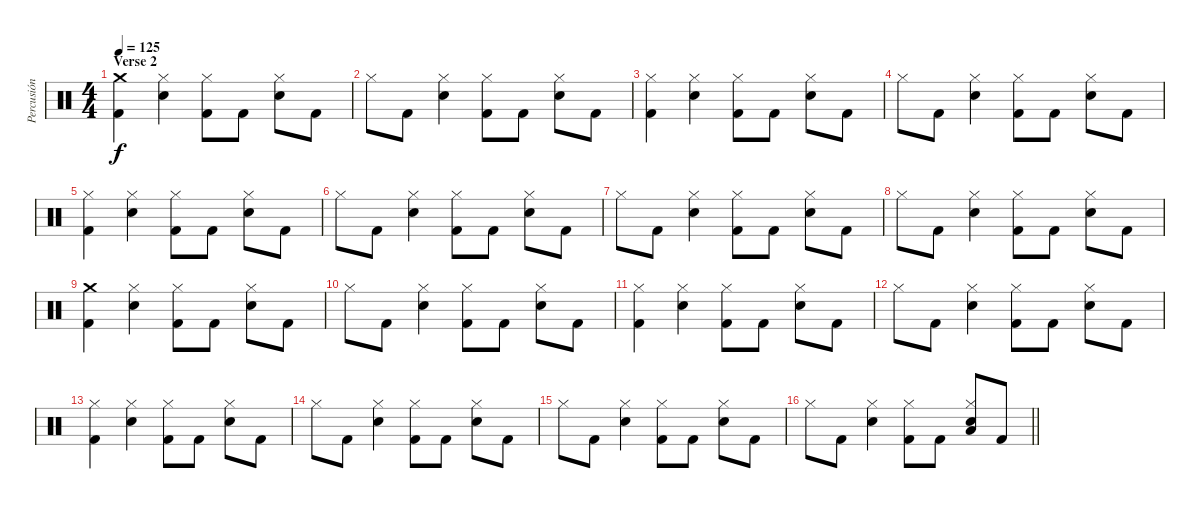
\track ("Percusión" "Percusión") {instrument percussion}
\staff {score}
\articulation defaults
\ts (4 4)
\section ("" "Verse 2")
\tempo 125
\clef neutral
\ks c
("Crash medium (hit)" "Kick (hit) 2").4{dy f} ("Snare (hit) 2" "Hi-Hat (closed)").4 ("Kick (hit) 2" "Hi-Hat (closed)").8 "Kick (hit) 2".8 ("Hi-Hat (closed)" "Snare (hit) 2").8 "Kick (hit) 2".8 |
"Hi-Hat (closed)".8 "Kick (hit) 2".8 ("Hi-Hat (closed)" "Snare (hit) 2").4 ("Hi-Hat (closed)" "Kick (hit) 2").8 "Kick (hit) 2".8 ("Hi-Hat (closed)" "Snare (hit) 2").8 "Kick (hit) 2".8 |
("Hi-Hat (closed)" "Kick (hit) 2").4 ("Snare (hit) 2" "Hi-Hat (closed)").4 ("Kick (hit) 2" "Hi-Hat (closed)").8 "Kick (hit) 2".8 ("Hi-Hat (closed)" "Snare (hit) 2").8 "Kick (hit) 2".8 |
"Hi-Hat (closed)".8 "Kick (hit) 2".8 ("Hi-Hat (closed)" "Snare (hit) 2").4 ("Hi-Hat (closed)" "Kick (hit) 2").8 "Kick (hit) 2".8 ("Hi-Hat (closed)" "Snare (hit) 2").8 "Kick (hit) 2".8 |
("Hi-Hat (closed)" "Kick (hit) 2").4 ("Snare (hit) 2" "Hi-Hat (closed)").4 ("Kick (hit) 2" "Hi-Hat (closed)").8 "Kick (hit) 2".8 ("Hi-Hat (closed)" "Snare (hit) 2").8 "Kick (hit) 2".8 |
"Hi-Hat (closed)".8 "Kick (hit) 2".8 ("Hi-Hat (closed)" "Snare (hit) 2").4 ("Hi-Hat (closed)" "Kick (hit) 2").8 "Kick (hit) 2".8 ("Hi-Hat (closed)" "Snare (hit) 2").8 "Kick (hit) 2".8 |
"Hi-Hat (closed)".8 "Kick (hit) 2".8 ("Hi-Hat (closed)" "Snare (hit) 2").4 ("Hi-Hat (closed)" "Kick (hit) 2").8 "Kick (hit) 2".8 ("Hi-Hat (closed)" "Snare (hit) 2").8 "Kick (hit) 2".8 |
"Hi-Hat (closed)".8 "Kick (hit) 2".8 ("Hi-Hat (closed)" "Snare (hit) 2").4 ("Hi-Hat (closed)" "Kick (hit) 2").8 "Kick (hit) 2".8 ("Hi-Hat (closed)" "Snare (hit) 2").8 "Kick (hit) 2".8 |
("Crash medium (hit)" "Kick (hit) 2").4 ("Snare (hit) 2" "Hi-Hat (closed)").4 ("Kick (hit) 2" "Hi-Hat (closed)").8 "Kick (hit) 2".8 ("Hi-Hat (closed)" "Snare (hit) 2").8 "Kick (hit) 2".8 |
"Hi-Hat (closed)".8 "Kick (hit) 2".8 ("Hi-Hat (closed)" "Snare (hit) 2").4 ("Hi-Hat (closed)" "Kick (hit) 2").8 "Kick (hit) 2".8 ("Hi-Hat (closed)" "Snare (hit) 2").8 "Kick (hit) 2".8 |
("Hi-Hat (closed)" "Kick (hit) 2").4 ("Snare (hit) 2" "Hi-Hat (closed)").4 ("Kick (hit) 2" "Hi-Hat (closed)").8 "Kick (hit) 2".8 ("Hi-Hat (closed)" "Snare (hit) 2").8 "Kick (hit) 2".8 |
"Hi-Hat (closed)".8 "Kick (hit) 2".8 ("Hi-Hat (closed)" "Snare (hit) 2").4 ("Hi-Hat (closed)" "Kick (hit) 2").8 "Kick (hit) 2".8 ("Hi-Hat (closed)" "Snare (hit) 2").8 "Kick (hit) 2".8 |
("Hi-Hat (closed)" "Kick (hit) 2").4 ("Snare (hit) 2" "Hi-Hat (closed)").4 ("Kick (hit) 2" "Hi-Hat (closed)").8 "Kick (hit) 2".8 ("Hi-Hat (closed)" "Snare (hit) 2").8 "Kick (hit) 2".8 |
"Hi-Hat (closed)".8 "Kick (hit) 2".8 ("Hi-Hat (closed)" "Snare (hit) 2").4 ("Hi-Hat (closed)" "Kick (hit) 2").8 "Kick (hit) 2".8 ("Hi-Hat (closed)" "Snare (hit) 2").8 "Kick (hit) 2".8 |
"Hi-Hat (closed)".8 "Kick (hit) 2".8 ("Hi-Hat (closed)" "Snare (hit) 2").4 ("Hi-Hat (closed)" "Kick (hit) 2").8 "Kick (hit) 2".8 ("Hi-Hat (closed)" "Snare (hit) 2").8 "Kick (hit) 2".8 |
\barLineRight lightlight "Hi-Hat (closed)".8 "Kick (hit) 2".8
("Hi-Hat (closed)" "Snare (hit) 2").4 ("Hi-Hat (closed)" "Kick (hit) 2").8 "Kick (hit) 2".8 ("Hi-Hat (closed)" "Snare (hit) 2" "Low Floor Tom (hit)").8 "Kick (hit) 2".8
